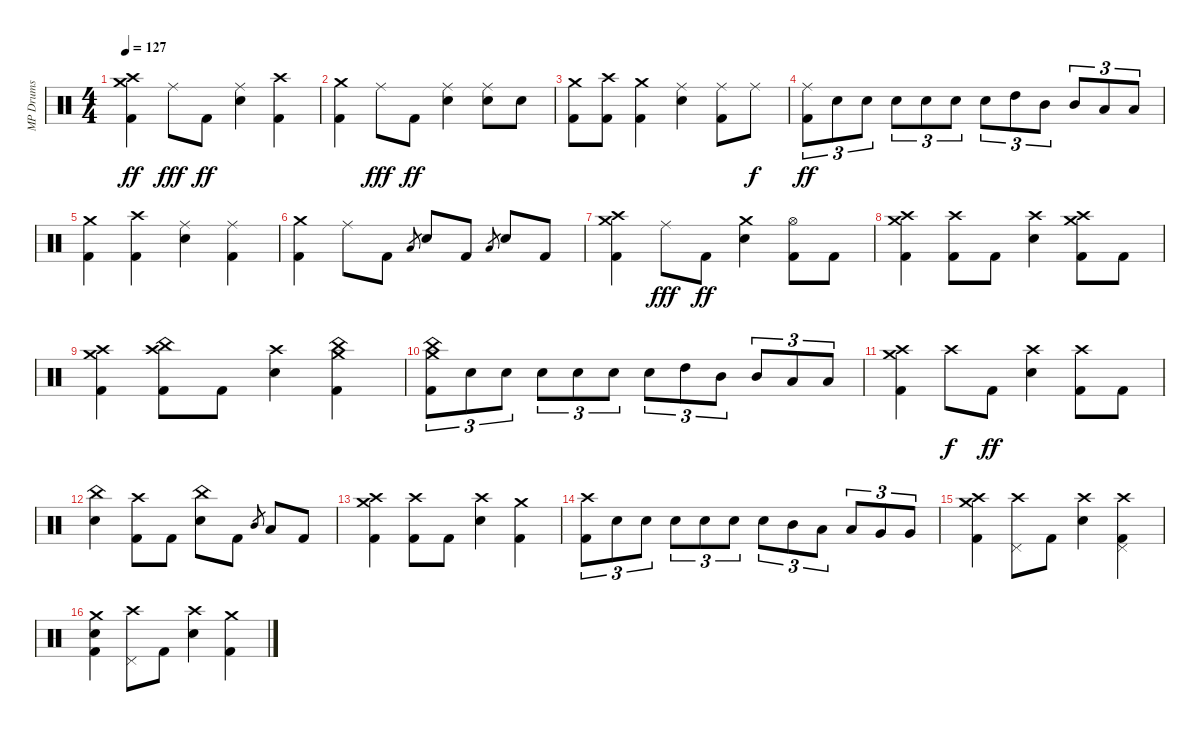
\track ("MP Drums" "MP Drums") {instrument percussion}
\staff {score}
\articulation defaults
\ts (4 4)
\tempo 127
\clef neutral
\ks c
("Crash high (hit)" "Crash medium (hit)" "Kick (hit) 2").4{dy ff} "Ride (middle)".8{dy fff} "Kick (hit) 2".8{dy ff} ("Ride (middle)" "Snare (hit) 2").4 ("Crash high (hit)" "Kick (hit) 2").4 |
("Crash medium (hit)" "Kick (hit) 2").4 "Ride (middle)".8{dy fff} "Kick (hit) 2".8{dy ff} ("Ride (middle)" "Snare (hit) 2").4 ("Ride (middle)" "Snare (hit) 2").8 "Snare (hit) 2".8 |
("Crash medium (hit)" "Kick (hit) 2").8 ("Crash high (hit)" "Kick (hit) 2").8 ("Crash medium (hit)" "Kick (hit) 2").4 ("Ride (middle)" "Snare (hit) 2").4 ("Ride (middle)" "Kick (hit) 2").8 "Ride (middle)".8{dy f} |
("Ride (middle)" "Kick (hit) 2").8{tu (3 2) dy ff} "Snare (hit) 2".8{tu (3 2)} "Snare (hit) 2".8{tu (3 2)} "Snare (hit) 2".8{tu (3 2)} "Snare (hit) 2".8{tu (3 2)} "Snare (hit) 2".8{tu (3 2)} "Snare (hit) 2".8{tu (3 2)} "High Tom (hit)".8{tu (3 2)} "Mid Tom (hit)".8{tu (3 2)} "Mid Tom (hit)".8{tu (3 2)} "Low Tom (hit)".8{tu (3 2)} "Low Tom (hit)".8{tu (3 2)} |
("Crash medium (hit)" "Kick (hit) 2").4 ("Crash high (hit)" "Kick (hit) 2").4 ("Ride (middle)" "Snare (hit) 2").4 ("Ride (middle)" "Kick (hit) 2").4 |
("Crash medium (hit)" "Kick (hit) 2").4 "Ride (middle)".8 "Kick (hit) 2".8 "Low Tom (hit)".8{gr} "Snare (hit) 2".8 "Kick (hit) 2".8 "Low Tom (hit)".8{gr} "Snare (hit) 2".8 "Kick (hit) 2".8 |
("Crash high (hit)" "Crash medium (hit)" "Kick (hit) 2").4 "Ride (middle)".8{dy fff} "Kick (hit) 2".8{dy ff} ("Crash medium (hit)" "Snare (hit) 2").4 ("Hi-Hat (open)" "Kick (hit) 2").8 "Kick (hit) 2".8 |
("Crash high (hit)" "Crash medium (hit)" "Kick (hit) 2").4 ("Crash high (hit)" "Kick (hit) 2").8 "Kick (hit) 2".8 ("Crash high (hit)" "Snare (hit) 2").4 ("Crash high (hit)" "Crash medium (hit)" "Kick (hit) 2").8 "Kick (hit) 2".8 |
("Crash high (hit)" "Crash medium (hit)" "Kick (hit) 2").4 ("Crash high (hit)" "China (hit)" "Kick (hit) 2").8 "Kick (hit) 2".8 ("Crash high (hit)" "Snare (hit) 2").4 ("China (hit)" "Crash medium (hit)" "Kick (hit) 2").4 |
("China (hit)" "Crash medium (hit)" "Kick (hit) 2").8{tu (3 2)} "Snare (hit) 2".8{tu (3 2)} "Snare (hit) 2".8{tu (3 2)} "Snare (hit) 2".8{tu (3 2)} "Snare (hit) 2".8{tu (3 2)} "Snare (hit) 2".8{tu (3 2)} "Snare (hit) 2".8{tu (3 2)} "High Tom (hit)".8{tu (3 2)} "Mid Tom (hit)".8{tu (3 2)} "Mid Tom (hit)".8{tu (3 2)} "Low Tom (hit)".8{tu (3 2)} "Low Tom (hit)".8{tu (3 2)} |
("Crash high (hit)" "Crash medium (hit)" "Kick (hit) 2").4 "Crash high (hit)".8{dy f} "Kick (hit) 2".8{dy ff} ("Crash high (hit)" "Snare (hit) 2").4 ("Crash high (hit)" "Kick (hit) 2").8 "Kick (hit) 2".8 |
("China (hit)" "Snare (hit) 2").4 ("Crash high (hit)" "Kick (hit) 2").8 "Kick (hit) 2".8 ("China (hit)" "Snare (hit) 2").8 "Kick (hit) 2".8 "Mid Tom (hit)".8{gr} "Low Tom (hit)".8 "Kick (hit) 2".8 |
("Crash high (hit)" "Crash medium (hit)" "Kick (hit) 2").4 ("Crash high (hit)" "Kick (hit) 2").8 "Kick (hit) 2".8 ("Crash high (hit)" "Snare (hit) 2").4 ("Crash medium (hit)" "Kick (hit) 2").4 |
("Crash high (hit)" "Kick (hit) 2").8{tu (3 2)} "Snare (hit) 2".8{tu (3 2)} "Snare (hit) 2".8{tu (3 2)} "Snare (hit) 2".8{tu (3 2)} "Snare (hit) 2".8{tu (3 2)} "Snare (hit) 2".8{tu (3 2)} "Snare (hit) 2".8{tu (3 2)} "Mid Tom (hit)".8{tu (3 2)} "Low Tom (hit)".8{tu (3 2)} "Low Tom (hit)".8{tu (3 2)} "Very Low Tom (hit)".8{tu (3 2)} "Very Low Tom (hit)".8{tu (3 2)} |
("Crash high (hit)" "Crash medium (hit)" "Kick (hit) 2").4 ("Crash high (hit)" "Pedal Hi-Hat (hit)").8 "Kick (hit) 2".8 ("Crash high (hit)" "Snare (hit) 2").4 ("Crash high (hit)" "Kick (hit) 2" "Pedal Hi-Hat (hit)").4 |
("Crash medium (hit)" "Snare (hit) 2" "Kick (hit) 2").4 ("Crash high (hit)" "Pedal Hi-Hat (hit)").8 "Kick (hit) 2".8 ("Crash high (hit)" "Snare (hit) 2").4 ("Crash medium (hit)" "Kick (hit) 2").4
